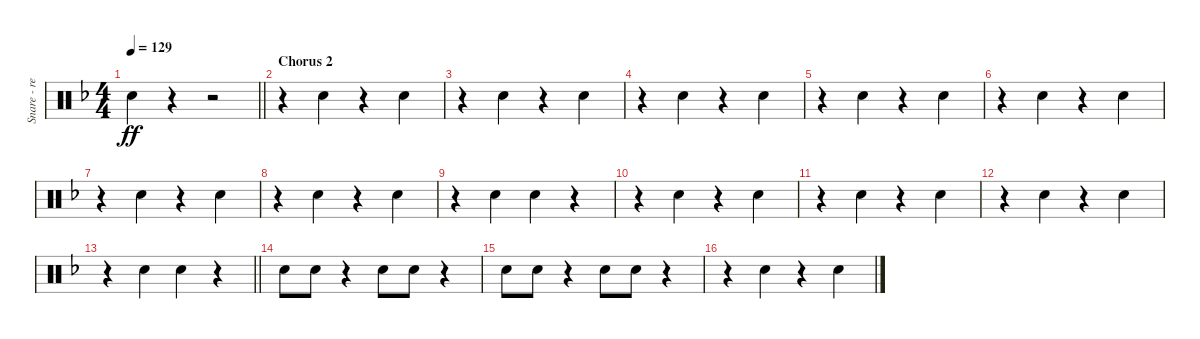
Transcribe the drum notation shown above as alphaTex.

\track ("Snare - reverb" "Snare - re") {instrument percussion}
\staff {score}
\articulation defaults
\ts (4 4)
\tempo 129
\clef neutral
\barLineRight lightlight
\ks dminor "Snare (hit) 2".4{dy ff}
r.4 r.2 |
\section ("" "Chorus 2")
r.4 "Snare (hit) 2".4 r.4 "Snare (hit) 2".4 |
r.4 "Snare (hit) 2".4 r.4 "Snare (hit) 2".4 |
r.4 "Snare (hit) 2".4 r.4 "Snare (hit) 2".4 |
r.4 "Snare (hit) 2".4 r.4 "Snare (hit) 2".4 |
r.4 "Snare (hit) 2".4 r.4 "Snare (hit) 2".4 |
r.4 "Snare (hit) 2".4 r.4 "Snare (hit) 2".4 |
r.4 "Snare (hit) 2".4 r.4 "Snare (hit) 2".4 |
r.4 "Snare (hit) 2".4 "Snare (hit) 2".4 r.4 |
r.4 "Snare (hit) 2".4 r.4 "Snare (hit) 2".4 |
r.4 "Snare (hit) 2".4 r.4 "Snare (hit) 2".4 |
r.4 "Snare (hit) 2".4 r.4 "Snare (hit) 2".4 |
\barLineRight lightlight
r.4 "Snare (hit) 2".4 "Snare (hit) 2".4 r.4 |
"Snare (hit) 2".8{beam Down} "Snare (hit) 2".8{beam Down} r.4 "Snare (hit) 2".8{beam Down} "Snare (hit) 2".8{beam Down} r.4 |
"Snare (hit) 2".8{beam Down} "Snare (hit) 2".8{beam Down} r.4 "Snare (hit) 2".8{beam Down} "Snare (hit) 2".8{beam Down} r.4 |
r.4 "Snare (hit) 2".4 r.4 "Snare (hit) 2".4
